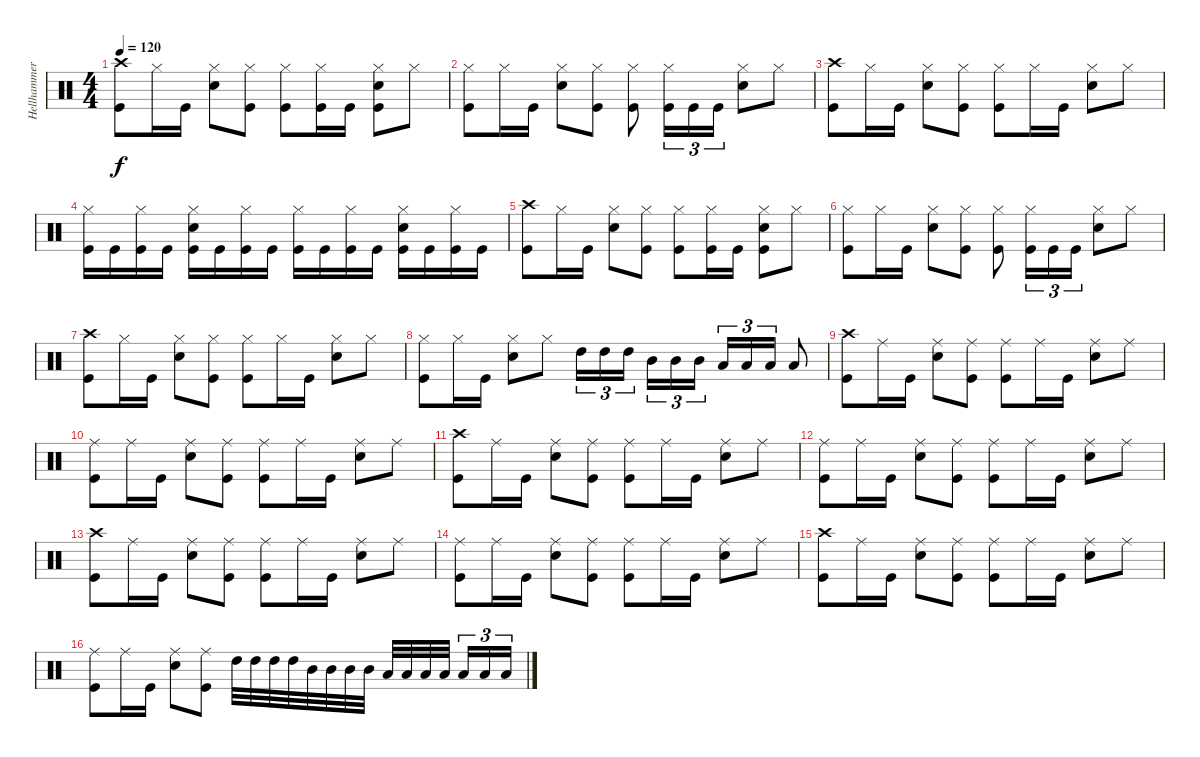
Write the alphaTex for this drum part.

\track ("Hellhammer" "Hellhammer") {instrument percussion}
\staff {score}
\articulation defaults
\ts (4 4)
\tempo 120
\clef neutral
\ks c
("Crash high (hit)" "Kick (hit)").8{dy f} "Hi-Hat (closed)".16 "Kick (hit)".16 ("Hi-Hat (closed)" "Electric Snare (hit)").8 ("Hi-Hat (closed)" "Kick (hit)").8 ("Hi-Hat (closed)" "Kick (hit)").8 ("Hi-Hat (closed)" "Kick (hit)").16 "Kick (hit)".16 ("Hi-Hat (closed)" "Electric Snare (hit)" "Kick (hit)").8 "Hi-Hat (closed)".8 |
("Hi-Hat (closed)" "Kick (hit)").8 "Hi-Hat (closed)".16 "Kick (hit)".16 ("Hi-Hat (closed)" "Electric Snare (hit)").8 ("Hi-Hat (closed)" "Kick (hit)").8 ("Hi-Hat (closed)" "Kick (hit)").8 ("Hi-Hat (closed)" "Kick (hit)").16{tu (3 2)} "Kick (hit)".16{tu (3 2)} "Kick (hit)".16{tu (3 2)} ("Hi-Hat (closed)" "Electric Snare (hit)").8 "Hi-Hat (closed)".8 |
("Crash high (hit)" "Kick (hit)").8 "Hi-Hat (closed)".16 "Kick (hit)".16 ("Hi-Hat (closed)" "Electric Snare (hit)").8 ("Hi-Hat (closed)" "Kick (hit)").8 ("Hi-Hat (closed)" "Kick (hit)").8 "Hi-Hat (closed)".16 "Kick (hit)".16 ("Hi-Hat (closed)" "Electric Snare (hit)").8 "Hi-Hat (closed)".8 |
("Hi-Hat (closed)" "Kick (hit)").16 "Kick (hit)".16 ("Hi-Hat (closed)" "Kick (hit)").16 "Kick (hit)".16 ("Hi-Hat (closed)" "Electric Snare (hit)" "Kick (hit)").16 "Kick (hit)".16 ("Hi-Hat (closed)" "Kick (hit)").16 "Kick (hit)".16 ("Hi-Hat (closed)" "Kick (hit)").16 "Kick (hit)".16 ("Hi-Hat (closed)" "Kick (hit)").16 "Kick (hit)".16 ("Hi-Hat (closed)" "Electric Snare (hit)" "Kick (hit)").16 "Kick (hit)".16 ("Hi-Hat (closed)" "Kick (hit)").16 "Kick (hit)".16 |
("Crash high (hit)" "Kick (hit)").8 "Hi-Hat (closed)".16 "Kick (hit)".16 ("Hi-Hat (closed)" "Electric Snare (hit)").8 ("Hi-Hat (closed)" "Kick (hit)").8 ("Hi-Hat (closed)" "Kick (hit)").8 ("Hi-Hat (closed)" "Kick (hit)").16 "Kick (hit)".16 ("Hi-Hat (closed)" "Electric Snare (hit)" "Kick (hit)").8 "Hi-Hat (closed)".8 |
("Hi-Hat (closed)" "Kick (hit)").8 "Hi-Hat (closed)".16 "Kick (hit)".16 ("Hi-Hat (closed)" "Electric Snare (hit)").8 ("Hi-Hat (closed)" "Kick (hit)").8 ("Hi-Hat (closed)" "Kick (hit)").8 ("Hi-Hat (closed)" "Kick (hit)").16{tu (3 2)} "Kick (hit)".16{tu (3 2)} "Kick (hit)".16{tu (3 2)} ("Hi-Hat (closed)" "Electric Snare (hit)").8 "Hi-Hat (closed)".8 |
("Crash high (hit)" "Kick (hit)").8 "Hi-Hat (closed)".16 "Kick (hit)".16 ("Hi-Hat (closed)" "Electric Snare (hit)").8 ("Hi-Hat (closed)" "Kick (hit)").8 ("Hi-Hat (closed)" "Kick (hit)").8 "Hi-Hat (closed)".16 "Kick (hit)".16 ("Hi-Hat (closed)" "Electric Snare (hit)").8 "Hi-Hat (closed)".8 |
("Hi-Hat (closed)" "Kick (hit)").8 "Hi-Hat (closed)".16 "Kick (hit)".16 ("Hi-Hat (closed)" "Electric Snare (hit)").8 "Hi-Hat (closed)".8 "High Tom (hit)".16{tu (3 2)} "High Tom (hit)".16{tu (3 2)} "High Tom (hit)".16{tu (3 2)} "Mid Tom (hit)".16{tu (3 2)} "Mid Tom (hit)".16{tu (3 2)} "Mid Tom (hit)".16{tu (3 2)} "Low Tom (hit)".16{tu (3 2)} "Low Tom (hit)".16{tu (3 2)} "Low Tom (hit)".16{tu (3 2)} "Low Tom (hit)".8 |
("Crash high (hit)" "Kick (hit)").8 "Ride (middle)".16 "Kick (hit)".16 ("Ride (middle)" "Electric Snare (hit)").8 ("Ride (middle)" "Kick (hit)").8 ("Ride (middle)" "Kick (hit)").8 "Ride (middle)".16 "Kick (hit)".16 ("Ride (middle)" "Electric Snare (hit)").8 "Ride (middle)".8 |
("Ride (middle)" "Kick (hit)").8 "Ride (middle)".16 "Kick (hit)".16 ("Ride (middle)" "Electric Snare (hit)").8 ("Ride (middle)" "Kick (hit)").8 ("Ride (middle)" "Kick (hit)").8 "Ride (middle)".16 "Kick (hit)".16 ("Ride (middle)" "Electric Snare (hit)").8 "Ride (middle)".8 |
("Crash high (hit)" "Kick (hit)").8 "Ride (middle)".16 "Kick (hit)".16 ("Ride (middle)" "Electric Snare (hit)").8 ("Ride (middle)" "Kick (hit)").8 ("Ride (middle)" "Kick (hit)").8 "Ride (middle)".16 "Kick (hit)".16 ("Ride (middle)" "Electric Snare (hit)").8 "Ride (middle)".8 |
("Ride (middle)" "Kick (hit)").8 "Ride (middle)".16 "Kick (hit)".16 ("Ride (middle)" "Electric Snare (hit)").8 ("Ride (middle)" "Kick (hit)").8 ("Ride (middle)" "Kick (hit)").8 "Ride (middle)".16 "Kick (hit)".16 ("Ride (middle)" "Electric Snare (hit)").8 "Ride (middle)".8 |
("Crash high (hit)" "Kick (hit)").8 "Ride (middle)".16 "Kick (hit)".16 ("Ride (middle)" "Electric Snare (hit)").8 ("Ride (middle)" "Kick (hit)").8 ("Ride (middle)" "Kick (hit)").8 "Ride (middle)".16 "Kick (hit)".16 ("Ride (middle)" "Electric Snare (hit)").8 "Ride (middle)".8 |
("Ride (middle)" "Kick (hit)").8 "Ride (middle)".16 "Kick (hit)".16 ("Ride (middle)" "Electric Snare (hit)").8 ("Ride (middle)" "Kick (hit)").8 ("Ride (middle)" "Kick (hit)").8 "Ride (middle)".16 "Kick (hit)".16 ("Ride (middle)" "Electric Snare (hit)").8 "Ride (middle)".8 |
("Crash high (hit)" "Kick (hit)").8 "Ride (middle)".16 "Kick (hit)".16 ("Ride (middle)" "Electric Snare (hit)").8 ("Ride (middle)" "Kick (hit)").8 ("Ride (middle)" "Kick (hit)").8 "Ride (middle)".16 "Kick (hit)".16 ("Ride (middle)" "Electric Snare (hit)").8 "Ride (middle)".8 |
("Ride (middle)" "Kick (hit)").8 "Ride (middle)".16 "Kick (hit)".16 ("Ride (middle)" "Electric Snare (hit)").8 ("Ride (middle)" "Kick (hit)").8 "High Tom (hit)".32 "High Tom (hit)".32 "High Tom (hit)".32 "High Tom (hit)".32 "Mid Tom (hit)".32 "Mid Tom (hit)".32 "Mid Tom (hit)".32 "Mid Tom (hit)".32 "Low Tom (hit)".32 "Low Tom (hit)".32 "Low Tom (hit)".32 "Low Tom (hit)".32 "Low Tom (hit)".16{tu (3 2)} "Low Tom (hit)".16{tu (3 2)} "Low Tom (hit)".16{tu (3 2)}
